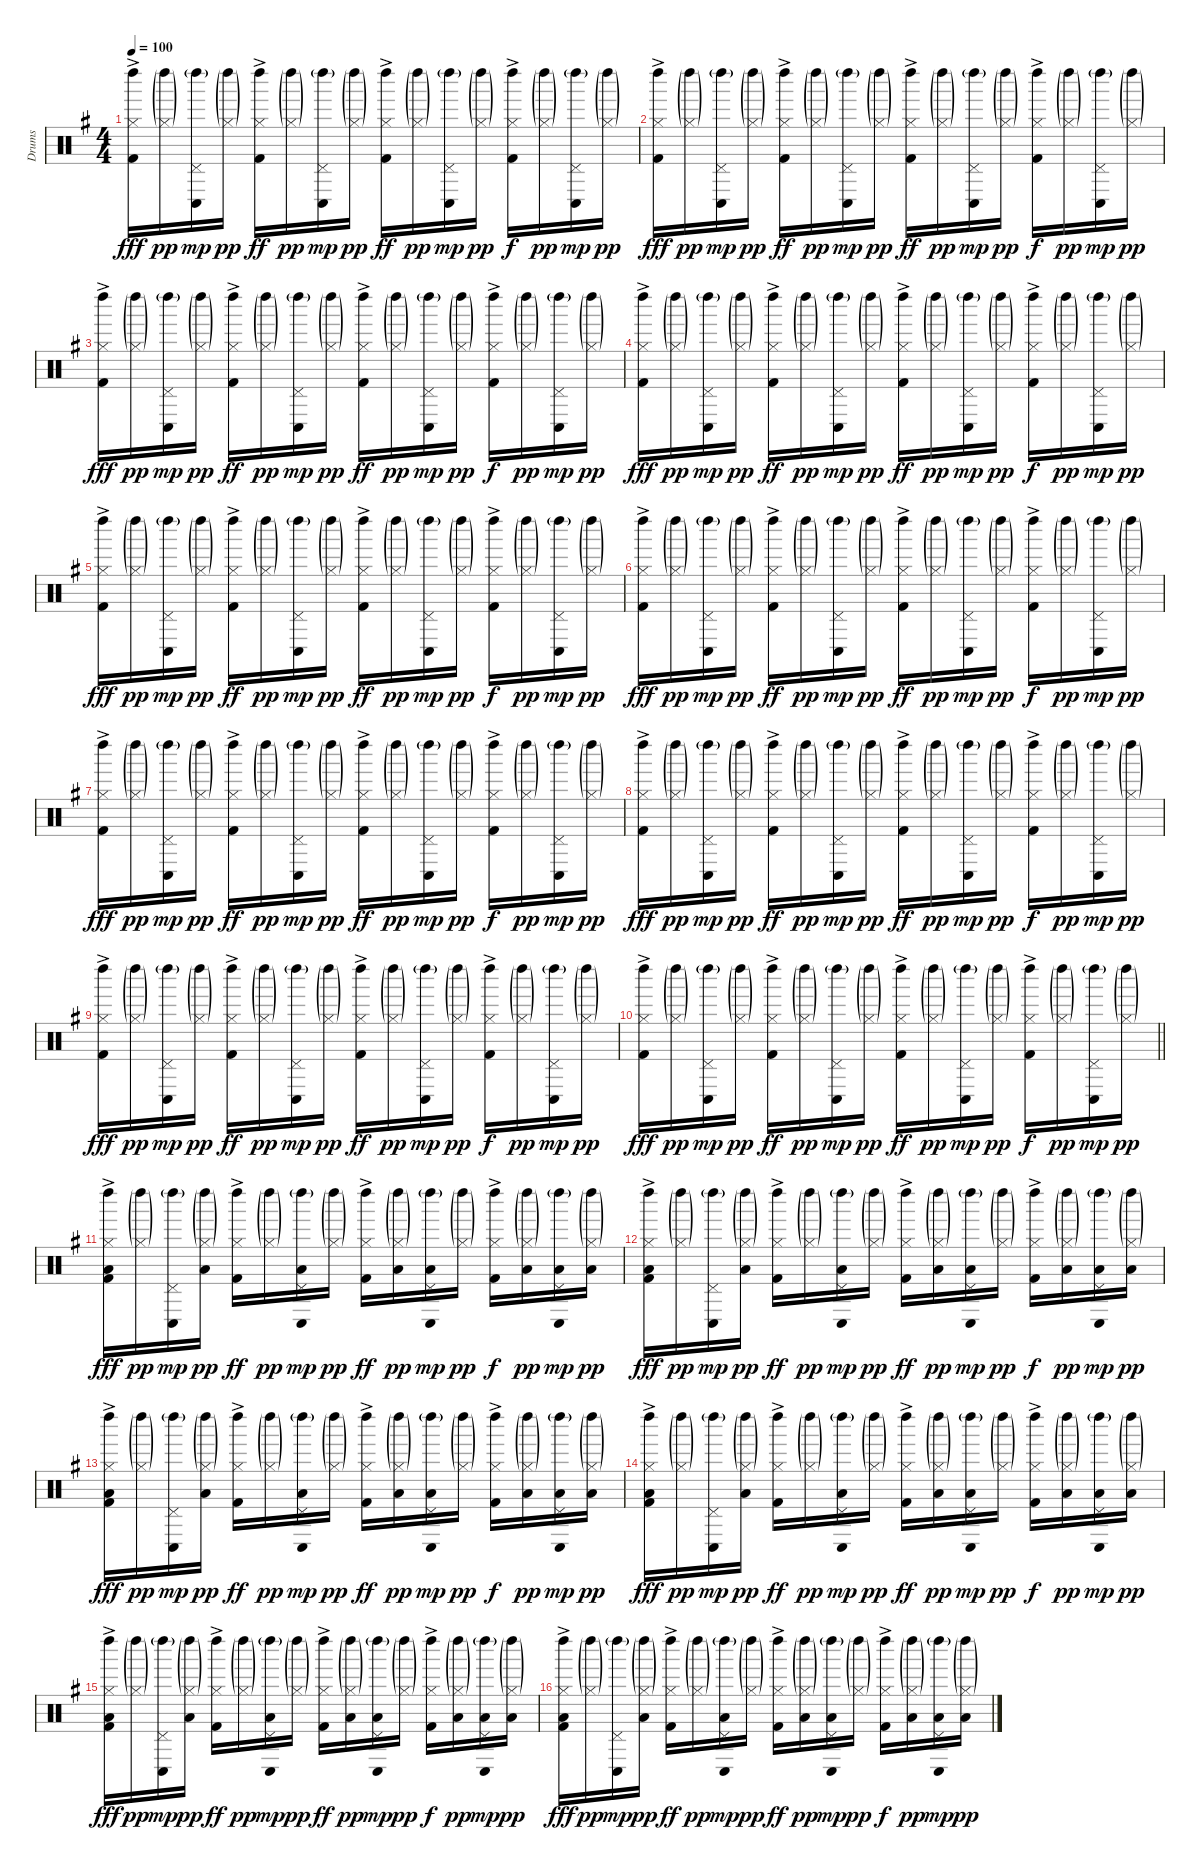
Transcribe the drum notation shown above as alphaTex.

\track ("Drums" "Drums") {instrument percussion}
\staff {score}
\articulation defaults
\ts (4 4)
\tempo 100
\clef neutral
\ks g
("Kick (hit) 2"{ac} "Hi-Hat (closed)" "Left Maraca (hit)").16{dy fff} ("Hi-Hat (closed)"{g} "Left Maraca (hit)"{g}).16{dy pp} ("Pedal Hi-Hat (hit)" "Conga low (hit)" "Left Maraca (hit)"{g}).16{dy mp} ("Hi-Hat (closed)"{g} "Left Maraca (hit)"{g}).16{dy pp} ("Kick (hit) 2"{ac} "Hi-Hat (closed)" "Left Maraca (hit)").16{dy ff} ("Hi-Hat (closed)"{g} "Left Maraca (hit)"{g}).16{dy pp} ("Pedal Hi-Hat (hit)" "Conga low (hit)" "Left Maraca (hit)"{g}).16{dy mp} ("Hi-Hat (closed)"{g} "Left Maraca (hit)"{g}).16{dy pp} ("Kick (hit) 2"{ac} "Hi-Hat (closed)" "Left Maraca (hit)").16{dy ff} ("Hi-Hat (closed)"{g} "Left Maraca (hit)"{g}).16{dy pp} ("Pedal Hi-Hat (hit)" "Conga low (hit)" "Left Maraca (hit)"{g}).16{dy mp} ("Hi-Hat (closed)"{g} "Left Maraca (hit)"{g}).16{dy pp} ("Kick (hit) 2"{ac} "Hi-Hat (closed)" "Left Maraca (hit)").16{dy f} ("Hi-Hat (closed)"{g} "Left Maraca (hit)"{g}).16{dy pp} ("Pedal Hi-Hat (hit)" "Conga low (hit)" "Left Maraca (hit)"{g}).16{dy mp} ("Hi-Hat (closed)"{g} "Left Maraca (hit)"{g}).16{dy pp} |
("Kick (hit) 2"{ac} "Hi-Hat (closed)" "Left Maraca (hit)").16{dy fff} ("Hi-Hat (closed)"{g} "Left Maraca (hit)"{g}).16{dy pp} ("Pedal Hi-Hat (hit)" "Conga low (hit)" "Left Maraca (hit)"{g}).16{dy mp} ("Hi-Hat (closed)"{g} "Left Maraca (hit)"{g}).16{dy pp} ("Kick (hit) 2"{ac} "Hi-Hat (closed)" "Left Maraca (hit)").16{dy ff} ("Hi-Hat (closed)"{g} "Left Maraca (hit)"{g}).16{dy pp} ("Pedal Hi-Hat (hit)" "Conga low (hit)" "Left Maraca (hit)"{g}).16{dy mp} ("Hi-Hat (closed)"{g} "Left Maraca (hit)"{g}).16{dy pp} ("Kick (hit) 2"{ac} "Hi-Hat (closed)" "Left Maraca (hit)").16{dy ff} ("Hi-Hat (closed)"{g} "Left Maraca (hit)"{g}).16{dy pp} ("Pedal Hi-Hat (hit)" "Conga low (hit)" "Left Maraca (hit)"{g}).16{dy mp} ("Hi-Hat (closed)"{g} "Left Maraca (hit)"{g}).16{dy pp} ("Kick (hit) 2"{ac} "Hi-Hat (closed)" "Left Maraca (hit)").16{dy f} ("Hi-Hat (closed)"{g} "Left Maraca (hit)"{g}).16{dy pp} ("Pedal Hi-Hat (hit)" "Conga low (hit)" "Left Maraca (hit)"{g}).16{dy mp} ("Hi-Hat (closed)"{g} "Left Maraca (hit)"{g}).16{dy pp} |
("Kick (hit) 2"{ac} "Hi-Hat (closed)" "Left Maraca (hit)").16{dy fff} ("Hi-Hat (closed)"{g} "Left Maraca (hit)"{g}).16{dy pp} ("Pedal Hi-Hat (hit)" "Conga low (hit)" "Left Maraca (hit)"{g}).16{dy mp} ("Hi-Hat (closed)"{g} "Left Maraca (hit)"{g}).16{dy pp} ("Kick (hit) 2"{ac} "Hi-Hat (closed)" "Left Maraca (hit)").16{dy ff} ("Hi-Hat (closed)"{g} "Left Maraca (hit)"{g}).16{dy pp} ("Pedal Hi-Hat (hit)" "Conga low (hit)" "Left Maraca (hit)"{g}).16{dy mp} ("Hi-Hat (closed)"{g} "Left Maraca (hit)"{g}).16{dy pp} ("Kick (hit) 2"{ac} "Hi-Hat (closed)" "Left Maraca (hit)").16{dy ff} ("Hi-Hat (closed)"{g} "Left Maraca (hit)"{g}).16{dy pp} ("Pedal Hi-Hat (hit)" "Conga low (hit)" "Left Maraca (hit)"{g}).16{dy mp} ("Hi-Hat (closed)"{g} "Left Maraca (hit)"{g}).16{dy pp} ("Kick (hit) 2"{ac} "Hi-Hat (closed)" "Left Maraca (hit)").16{dy f} ("Hi-Hat (closed)"{g} "Left Maraca (hit)"{g}).16{dy pp} ("Pedal Hi-Hat (hit)" "Conga low (hit)" "Left Maraca (hit)"{g}).16{dy mp} ("Hi-Hat (closed)"{g} "Left Maraca (hit)"{g}).16{dy pp} |
("Kick (hit) 2"{ac} "Hi-Hat (closed)" "Left Maraca (hit)").16{dy fff} ("Hi-Hat (closed)"{g} "Left Maraca (hit)"{g}).16{dy pp} ("Pedal Hi-Hat (hit)" "Conga low (hit)" "Left Maraca (hit)"{g}).16{dy mp} ("Hi-Hat (closed)"{g} "Left Maraca (hit)"{g}).16{dy pp} ("Kick (hit) 2"{ac} "Hi-Hat (closed)" "Left Maraca (hit)").16{dy ff} ("Hi-Hat (closed)"{g} "Left Maraca (hit)"{g}).16{dy pp} ("Pedal Hi-Hat (hit)" "Conga low (hit)" "Left Maraca (hit)"{g}).16{dy mp} ("Hi-Hat (closed)"{g} "Left Maraca (hit)"{g}).16{dy pp} ("Kick (hit) 2"{ac} "Hi-Hat (closed)" "Left Maraca (hit)").16{dy ff} ("Hi-Hat (closed)"{g} "Left Maraca (hit)"{g}).16{dy pp} ("Pedal Hi-Hat (hit)" "Conga low (hit)" "Left Maraca (hit)"{g}).16{dy mp} ("Hi-Hat (closed)"{g} "Left Maraca (hit)"{g}).16{dy pp} ("Kick (hit) 2"{ac} "Hi-Hat (closed)" "Left Maraca (hit)").16{dy f} ("Hi-Hat (closed)"{g} "Left Maraca (hit)"{g}).16{dy pp} ("Pedal Hi-Hat (hit)" "Conga low (hit)" "Left Maraca (hit)"{g}).16{dy mp} ("Hi-Hat (closed)"{g} "Left Maraca (hit)"{g}).16{dy pp} |
("Kick (hit) 2"{ac} "Hi-Hat (closed)" "Left Maraca (hit)").16{dy fff} ("Hi-Hat (closed)"{g} "Left Maraca (hit)"{g}).16{dy pp} ("Pedal Hi-Hat (hit)" "Conga low (hit)" "Left Maraca (hit)"{g}).16{dy mp} ("Hi-Hat (closed)"{g} "Left Maraca (hit)"{g}).16{dy pp} ("Kick (hit) 2"{ac} "Hi-Hat (closed)" "Left Maraca (hit)").16{dy ff} ("Hi-Hat (closed)"{g} "Left Maraca (hit)"{g}).16{dy pp} ("Pedal Hi-Hat (hit)" "Conga low (hit)" "Left Maraca (hit)"{g}).16{dy mp} ("Hi-Hat (closed)"{g} "Left Maraca (hit)"{g}).16{dy pp} ("Kick (hit) 2"{ac} "Hi-Hat (closed)" "Left Maraca (hit)").16{dy ff} ("Hi-Hat (closed)"{g} "Left Maraca (hit)"{g}).16{dy pp} ("Pedal Hi-Hat (hit)" "Conga low (hit)" "Left Maraca (hit)"{g}).16{dy mp} ("Hi-Hat (closed)"{g} "Left Maraca (hit)"{g}).16{dy pp} ("Kick (hit) 2"{ac} "Hi-Hat (closed)" "Left Maraca (hit)").16{dy f} ("Hi-Hat (closed)"{g} "Left Maraca (hit)"{g}).16{dy pp} ("Pedal Hi-Hat (hit)" "Conga low (hit)" "Left Maraca (hit)"{g}).16{dy mp} ("Hi-Hat (closed)"{g} "Left Maraca (hit)"{g}).16{dy pp} |
("Kick (hit) 2"{ac} "Hi-Hat (closed)" "Left Maraca (hit)").16{dy fff} ("Hi-Hat (closed)"{g} "Left Maraca (hit)"{g}).16{dy pp} ("Pedal Hi-Hat (hit)" "Conga low (hit)" "Left Maraca (hit)"{g}).16{dy mp} ("Hi-Hat (closed)"{g} "Left Maraca (hit)"{g}).16{dy pp} ("Kick (hit) 2"{ac} "Hi-Hat (closed)" "Left Maraca (hit)").16{dy ff} ("Hi-Hat (closed)"{g} "Left Maraca (hit)"{g}).16{dy pp} ("Pedal Hi-Hat (hit)" "Conga low (hit)" "Left Maraca (hit)"{g}).16{dy mp} ("Hi-Hat (closed)"{g} "Left Maraca (hit)"{g}).16{dy pp} ("Kick (hit) 2"{ac} "Hi-Hat (closed)" "Left Maraca (hit)").16{dy ff} ("Hi-Hat (closed)"{g} "Left Maraca (hit)"{g}).16{dy pp} ("Pedal Hi-Hat (hit)" "Conga low (hit)" "Left Maraca (hit)"{g}).16{dy mp} ("Hi-Hat (closed)"{g} "Left Maraca (hit)"{g}).16{dy pp} ("Kick (hit) 2"{ac} "Hi-Hat (closed)" "Left Maraca (hit)").16{dy f} ("Hi-Hat (closed)"{g} "Left Maraca (hit)"{g}).16{dy pp} ("Pedal Hi-Hat (hit)" "Conga low (hit)" "Left Maraca (hit)"{g}).16{dy mp} ("Hi-Hat (closed)"{g} "Left Maraca (hit)"{g}).16{dy pp} |
("Kick (hit) 2"{ac} "Hi-Hat (closed)" "Left Maraca (hit)").16{dy fff} ("Hi-Hat (closed)"{g} "Left Maraca (hit)"{g}).16{dy pp} ("Pedal Hi-Hat (hit)" "Conga low (hit)" "Left Maraca (hit)"{g}).16{dy mp} ("Hi-Hat (closed)"{g} "Left Maraca (hit)"{g}).16{dy pp} ("Kick (hit) 2"{ac} "Hi-Hat (closed)" "Left Maraca (hit)").16{dy ff} ("Hi-Hat (closed)"{g} "Left Maraca (hit)"{g}).16{dy pp} ("Pedal Hi-Hat (hit)" "Conga low (hit)" "Left Maraca (hit)"{g}).16{dy mp} ("Hi-Hat (closed)"{g} "Left Maraca (hit)"{g}).16{dy pp} ("Kick (hit) 2"{ac} "Hi-Hat (closed)" "Left Maraca (hit)").16{dy ff} ("Hi-Hat (closed)"{g} "Left Maraca (hit)"{g}).16{dy pp} ("Pedal Hi-Hat (hit)" "Conga low (hit)" "Left Maraca (hit)"{g}).16{dy mp} ("Hi-Hat (closed)"{g} "Left Maraca (hit)"{g}).16{dy pp} ("Kick (hit) 2"{ac} "Hi-Hat (closed)" "Left Maraca (hit)").16{dy f} ("Hi-Hat (closed)"{g} "Left Maraca (hit)"{g}).16{dy pp} ("Pedal Hi-Hat (hit)" "Conga low (hit)" "Left Maraca (hit)"{g}).16{dy mp} ("Hi-Hat (closed)"{g} "Left Maraca (hit)"{g}).16{dy pp} |
("Kick (hit) 2"{ac} "Hi-Hat (closed)" "Left Maraca (hit)").16{dy fff} ("Hi-Hat (closed)"{g} "Left Maraca (hit)"{g}).16{dy pp} ("Pedal Hi-Hat (hit)" "Conga low (hit)" "Left Maraca (hit)"{g}).16{dy mp} ("Hi-Hat (closed)"{g} "Left Maraca (hit)"{g}).16{dy pp} ("Kick (hit) 2"{ac} "Hi-Hat (closed)" "Left Maraca (hit)").16{dy ff} ("Hi-Hat (closed)"{g} "Left Maraca (hit)"{g}).16{dy pp} ("Pedal Hi-Hat (hit)" "Conga low (hit)" "Left Maraca (hit)"{g}).16{dy mp} ("Hi-Hat (closed)"{g} "Left Maraca (hit)"{g}).16{dy pp} ("Kick (hit) 2"{ac} "Hi-Hat (closed)" "Left Maraca (hit)").16{dy ff} ("Hi-Hat (closed)"{g} "Left Maraca (hit)"{g}).16{dy pp} ("Pedal Hi-Hat (hit)" "Conga low (hit)" "Left Maraca (hit)"{g}).16{dy mp} ("Hi-Hat (closed)"{g} "Left Maraca (hit)"{g}).16{dy pp} ("Kick (hit) 2"{ac} "Hi-Hat (closed)" "Left Maraca (hit)").16{dy f} ("Hi-Hat (closed)"{g} "Left Maraca (hit)"{g}).16{dy pp} ("Pedal Hi-Hat (hit)" "Conga low (hit)" "Left Maraca (hit)"{g}).16{dy mp} ("Hi-Hat (closed)"{g} "Left Maraca (hit)"{g}).16{dy pp} |
("Kick (hit) 2"{ac} "Hi-Hat (closed)" "Left Maraca (hit)").16{dy fff} ("Hi-Hat (closed)"{g} "Left Maraca (hit)"{g}).16{dy pp} ("Pedal Hi-Hat (hit)" "Conga low (hit)" "Left Maraca (hit)"{g}).16{dy mp} ("Hi-Hat (closed)"{g} "Left Maraca (hit)"{g}).16{dy pp} ("Kick (hit) 2"{ac} "Hi-Hat (closed)" "Left Maraca (hit)").16{dy ff} ("Hi-Hat (closed)"{g} "Left Maraca (hit)"{g}).16{dy pp} ("Pedal Hi-Hat (hit)" "Conga low (hit)" "Left Maraca (hit)"{g}).16{dy mp} ("Hi-Hat (closed)"{g} "Left Maraca (hit)"{g}).16{dy pp} ("Kick (hit) 2"{ac} "Hi-Hat (closed)" "Left Maraca (hit)").16{dy ff} ("Hi-Hat (closed)"{g} "Left Maraca (hit)"{g}).16{dy pp} ("Pedal Hi-Hat (hit)" "Conga low (hit)" "Left Maraca (hit)"{g}).16{dy mp} ("Hi-Hat (closed)"{g} "Left Maraca (hit)"{g}).16{dy pp} ("Kick (hit) 2"{ac} "Hi-Hat (closed)" "Left Maraca (hit)").16{dy f} ("Hi-Hat (closed)"{g} "Left Maraca (hit)"{g}).16{dy pp} ("Pedal Hi-Hat (hit)" "Conga low (hit)" "Left Maraca (hit)"{g}).16{dy mp} ("Hi-Hat (closed)"{g} "Left Maraca (hit)"{g}).16{dy pp} |
\barLineRight lightlight
("Kick (hit) 2"{ac} "Hi-Hat (closed)" "Left Maraca (hit)").16{dy fff} ("Hi-Hat (closed)"{g} "Left Maraca (hit)"{g}).16{dy pp} ("Pedal Hi-Hat (hit)" "Conga low (hit)" "Left Maraca (hit)"{g}).16{dy mp} ("Hi-Hat (closed)"{g} "Left Maraca (hit)"{g}).16{dy pp} ("Kick (hit) 2"{ac} "Hi-Hat (closed)" "Left Maraca (hit)").16{dy ff} ("Hi-Hat (closed)"{g} "Left Maraca (hit)"{g}).16{dy pp} ("Pedal Hi-Hat (hit)" "Conga low (hit)" "Left Maraca (hit)"{g}).16{dy mp} ("Hi-Hat (closed)"{g} "Left Maraca (hit)"{g}).16{dy pp} ("Kick (hit) 2"{ac} "Hi-Hat (closed)" "Left Maraca (hit)").16{dy ff} ("Hi-Hat (closed)"{g} "Left Maraca (hit)"{g}).16{dy pp} ("Pedal Hi-Hat (hit)" "Conga low (hit)" "Left Maraca (hit)"{g}).16{dy mp} ("Hi-Hat (closed)"{g} "Left Maraca (hit)"{g}).16{dy pp} ("Kick (hit) 2"{ac} "Hi-Hat (closed)" "Left Maraca (hit)").16{dy f} ("Hi-Hat (closed)"{g} "Left Maraca (hit)"{g}).16{dy pp} ("Pedal Hi-Hat (hit)" "Conga low (hit)" "Left Maraca (hit)"{g}).16{dy mp} ("Hi-Hat (closed)"{g} "Left Maraca (hit)"{g}).16{dy pp} |
("Kick (hit) 2"{ac} "Low Floor Tom (hit)" "Hi-Hat (closed)" "Left Maraca (hit)").16{dy fff} ("Hi-Hat (closed)"{g} "Left Maraca (hit)"{g}).16{dy pp} ("Conga low (hit)" "Pedal Hi-Hat (hit)" "Left Maraca (hit)"{g}).16{dy mp} ("Low Floor Tom (hit)" "Hi-Hat (closed)"{g} "Left Maraca (hit)"{g}).16{dy pp} ("Kick (hit) 2"{ac} "Hi-Hat (closed)" "Left Maraca (hit)").16{dy ff} ("Hi-Hat (closed)"{g} "Left Maraca (hit)"{g}).16{dy pp} ("Low Floor Tom (hit)" "Conga low (hit)" "Pedal Hi-Hat (hit)" "Left Maraca (hit)"{g}).16{dy mp} ("Hi-Hat (closed)"{g} "Left Maraca (hit)"{g}).16{dy pp} ("Kick (hit) 2"{ac} "Hi-Hat (closed)" "Left Maraca (hit)").16{dy ff} ("Low Floor Tom (hit)" "Hi-Hat (closed)"{g} "Left Maraca (hit)"{g}).16{dy pp} ("Low Floor Tom (hit)" "Conga low (hit)" "Pedal Hi-Hat (hit)" "Left Maraca (hit)"{g}).16{dy mp} ("Hi-Hat (closed)"{g} "Left Maraca (hit)"{g}).16{dy pp} ("Kick (hit) 2"{ac} "Hi-Hat (closed)" "Left Maraca (hit)").16{dy f} ("Low Floor Tom (hit)" "Hi-Hat (closed)"{g} "Left Maraca (hit)"{g}).16{dy pp} ("Low Floor Tom (hit)" "Conga low (hit)" "Pedal Hi-Hat (hit)" "Left Maraca (hit)"{g}).16{dy mp} ("Low Floor Tom (hit)" "Hi-Hat (closed)"{g} "Left Maraca (hit)"{g}).16{dy pp} |
("Kick (hit) 2"{ac} "Low Floor Tom (hit)" "Hi-Hat (closed)" "Left Maraca (hit)").16{dy fff} ("Hi-Hat (closed)"{g} "Left Maraca (hit)"{g}).16{dy pp} ("Conga low (hit)" "Pedal Hi-Hat (hit)" "Left Maraca (hit)"{g}).16{dy mp} ("Low Floor Tom (hit)" "Hi-Hat (closed)"{g} "Left Maraca (hit)"{g}).16{dy pp} ("Kick (hit) 2"{ac} "Hi-Hat (closed)" "Left Maraca (hit)").16{dy ff} ("Hi-Hat (closed)"{g} "Left Maraca (hit)"{g}).16{dy pp} ("Low Floor Tom (hit)" "Conga low (hit)" "Pedal Hi-Hat (hit)" "Left Maraca (hit)"{g}).16{dy mp} ("Hi-Hat (closed)"{g} "Left Maraca (hit)"{g}).16{dy pp} ("Kick (hit) 2"{ac} "Hi-Hat (closed)" "Left Maraca (hit)").16{dy ff} ("Low Floor Tom (hit)" "Hi-Hat (closed)"{g} "Left Maraca (hit)"{g}).16{dy pp} ("Low Floor Tom (hit)" "Conga low (hit)" "Pedal Hi-Hat (hit)" "Left Maraca (hit)"{g}).16{dy mp} ("Hi-Hat (closed)"{g} "Left Maraca (hit)"{g}).16{dy pp} ("Kick (hit) 2"{ac} "Hi-Hat (closed)" "Left Maraca (hit)").16{dy f} ("Low Floor Tom (hit)" "Hi-Hat (closed)"{g} "Left Maraca (hit)"{g}).16{dy pp} ("Low Floor Tom (hit)" "Conga low (hit)" "Pedal Hi-Hat (hit)" "Left Maraca (hit)"{g}).16{dy mp} ("Low Floor Tom (hit)" "Hi-Hat (closed)"{g} "Left Maraca (hit)"{g}).16{dy pp} |
("Kick (hit) 2"{ac} "Low Floor Tom (hit)" "Hi-Hat (closed)" "Left Maraca (hit)").16{dy fff} ("Hi-Hat (closed)"{g} "Left Maraca (hit)"{g}).16{dy pp} ("Conga low (hit)" "Pedal Hi-Hat (hit)" "Left Maraca (hit)"{g}).16{dy mp} ("Low Floor Tom (hit)" "Hi-Hat (closed)"{g} "Left Maraca (hit)"{g}).16{dy pp} ("Kick (hit) 2"{ac} "Hi-Hat (closed)" "Left Maraca (hit)").16{dy ff} ("Hi-Hat (closed)"{g} "Left Maraca (hit)"{g}).16{dy pp} ("Low Floor Tom (hit)" "Conga low (hit)" "Pedal Hi-Hat (hit)" "Left Maraca (hit)"{g}).16{dy mp} ("Hi-Hat (closed)"{g} "Left Maraca (hit)"{g}).16{dy pp} ("Kick (hit) 2"{ac} "Hi-Hat (closed)" "Left Maraca (hit)").16{dy ff} ("Low Floor Tom (hit)" "Hi-Hat (closed)"{g} "Left Maraca (hit)"{g}).16{dy pp} ("Low Floor Tom (hit)" "Conga low (hit)" "Pedal Hi-Hat (hit)" "Left Maraca (hit)"{g}).16{dy mp} ("Hi-Hat (closed)"{g} "Left Maraca (hit)"{g}).16{dy pp} ("Kick (hit) 2"{ac} "Hi-Hat (closed)" "Left Maraca (hit)").16{dy f} ("Low Floor Tom (hit)" "Hi-Hat (closed)"{g} "Left Maraca (hit)"{g}).16{dy pp} ("Low Floor Tom (hit)" "Conga low (hit)" "Pedal Hi-Hat (hit)" "Left Maraca (hit)"{g}).16{dy mp} ("Low Floor Tom (hit)" "Hi-Hat (closed)"{g} "Left Maraca (hit)"{g}).16{dy pp} |
("Kick (hit) 2"{ac} "Low Floor Tom (hit)" "Hi-Hat (closed)" "Left Maraca (hit)").16{dy fff} ("Hi-Hat (closed)"{g} "Left Maraca (hit)"{g}).16{dy pp} ("Conga low (hit)" "Pedal Hi-Hat (hit)" "Left Maraca (hit)"{g}).16{dy mp} ("Low Floor Tom (hit)" "Hi-Hat (closed)"{g} "Left Maraca (hit)"{g}).16{dy pp} ("Kick (hit) 2"{ac} "Hi-Hat (closed)" "Left Maraca (hit)").16{dy ff} ("Hi-Hat (closed)"{g} "Left Maraca (hit)"{g}).16{dy pp} ("Low Floor Tom (hit)" "Conga low (hit)" "Pedal Hi-Hat (hit)" "Left Maraca (hit)"{g}).16{dy mp} ("Hi-Hat (closed)"{g} "Left Maraca (hit)"{g}).16{dy pp} ("Kick (hit) 2"{ac} "Hi-Hat (closed)" "Left Maraca (hit)").16{dy ff} ("Low Floor Tom (hit)" "Hi-Hat (closed)"{g} "Left Maraca (hit)"{g}).16{dy pp} ("Low Floor Tom (hit)" "Conga low (hit)" "Pedal Hi-Hat (hit)" "Left Maraca (hit)"{g}).16{dy mp} ("Hi-Hat (closed)"{g} "Left Maraca (hit)"{g}).16{dy pp} ("Kick (hit) 2"{ac} "Hi-Hat (closed)" "Left Maraca (hit)").16{dy f} ("Low Floor Tom (hit)" "Hi-Hat (closed)"{g} "Left Maraca (hit)"{g}).16{dy pp} ("Low Floor Tom (hit)" "Conga low (hit)" "Pedal Hi-Hat (hit)" "Left Maraca (hit)"{g}).16{dy mp} ("Low Floor Tom (hit)" "Hi-Hat (closed)"{g} "Left Maraca (hit)"{g}).16{dy pp} |
("Kick (hit) 2"{ac} "Low Floor Tom (hit)" "Hi-Hat (closed)" "Left Maraca (hit)").16{dy fff} ("Hi-Hat (closed)"{g} "Left Maraca (hit)"{g}).16{dy pp} ("Conga low (hit)" "Pedal Hi-Hat (hit)" "Left Maraca (hit)"{g}).16{dy mp} ("Low Floor Tom (hit)" "Hi-Hat (closed)"{g} "Left Maraca (hit)"{g}).16{dy pp} ("Kick (hit) 2"{ac} "Hi-Hat (closed)" "Left Maraca (hit)").16{dy ff} ("Hi-Hat (closed)"{g} "Left Maraca (hit)"{g}).16{dy pp} ("Low Floor Tom (hit)" "Conga low (hit)" "Pedal Hi-Hat (hit)" "Left Maraca (hit)"{g}).16{dy mp} ("Hi-Hat (closed)"{g} "Left Maraca (hit)"{g}).16{dy pp} ("Kick (hit) 2"{ac} "Hi-Hat (closed)" "Left Maraca (hit)").16{dy ff} ("Low Floor Tom (hit)" "Hi-Hat (closed)"{g} "Left Maraca (hit)"{g}).16{dy pp} ("Low Floor Tom (hit)" "Conga low (hit)" "Pedal Hi-Hat (hit)" "Left Maraca (hit)"{g}).16{dy mp} ("Hi-Hat (closed)"{g} "Left Maraca (hit)"{g}).16{dy pp} ("Kick (hit) 2"{ac} "Hi-Hat (closed)" "Left Maraca (hit)").16{dy f} ("Low Floor Tom (hit)" "Hi-Hat (closed)"{g} "Left Maraca (hit)"{g}).16{dy pp} ("Low Floor Tom (hit)" "Conga low (hit)" "Pedal Hi-Hat (hit)" "Left Maraca (hit)"{g}).16{dy mp} ("Low Floor Tom (hit)" "Hi-Hat (closed)"{g} "Left Maraca (hit)"{g}).16{dy pp} |
("Kick (hit) 2"{ac} "Low Floor Tom (hit)" "Hi-Hat (closed)" "Left Maraca (hit)").16{dy fff} ("Hi-Hat (closed)"{g} "Left Maraca (hit)"{g}).16{dy pp} ("Conga low (hit)" "Pedal Hi-Hat (hit)" "Left Maraca (hit)"{g}).16{dy mp} ("Low Floor Tom (hit)" "Hi-Hat (closed)"{g} "Left Maraca (hit)"{g}).16{dy pp} ("Kick (hit) 2"{ac} "Hi-Hat (closed)" "Left Maraca (hit)").16{dy ff} ("Hi-Hat (closed)"{g} "Left Maraca (hit)"{g}).16{dy pp} ("Low Floor Tom (hit)" "Conga low (hit)" "Pedal Hi-Hat (hit)" "Left Maraca (hit)"{g}).16{dy mp} ("Hi-Hat (closed)"{g} "Left Maraca (hit)"{g}).16{dy pp} ("Kick (hit) 2"{ac} "Hi-Hat (closed)" "Left Maraca (hit)").16{dy ff} ("Low Floor Tom (hit)" "Hi-Hat (closed)"{g} "Left Maraca (hit)"{g}).16{dy pp} ("Low Floor Tom (hit)" "Conga low (hit)" "Pedal Hi-Hat (hit)" "Left Maraca (hit)"{g}).16{dy mp} ("Hi-Hat (closed)"{g} "Left Maraca (hit)"{g}).16{dy pp} ("Kick (hit) 2"{ac} "Hi-Hat (closed)" "Left Maraca (hit)").16{dy f} ("Low Floor Tom (hit)" "Hi-Hat (closed)"{g} "Left Maraca (hit)"{g}).16{dy pp} ("Low Floor Tom (hit)" "Conga low (hit)" "Pedal Hi-Hat (hit)" "Left Maraca (hit)"{g}).16{dy mp} ("Low Floor Tom (hit)" "Hi-Hat (closed)"{g} "Left Maraca (hit)"{g}).16{dy pp}
